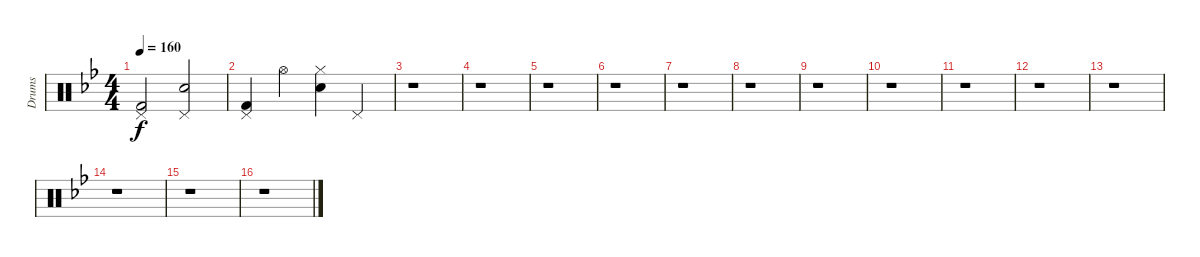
\track ("Drums" "Drums") {instrument percussion}
\staff {score}
\articulation defaults
\ts (4 4)
\tempo 160
\clef neutral
\ks bb
("Pedal Hi-Hat (hit)" "Kick (hit) 2").2{dy f} ("Pedal Hi-Hat (hit)" "Electric Snare (hit)").2 |
("Pedal Hi-Hat (hit)" "Kick (hit) 2").4 "Hi-Hat (open)".4 ("Hi-Hat (closed)" "Electric Snare (hit)").4 "Pedal Hi-Hat (hit)".4 |
r.1 |
r.1 |
r.1 |
r.1 |
r.1 |
r.1 |
r.1 |
r.1 |
r.1 |
r.1 |
r.1 |
r.1 |
r.1 |
r.1
